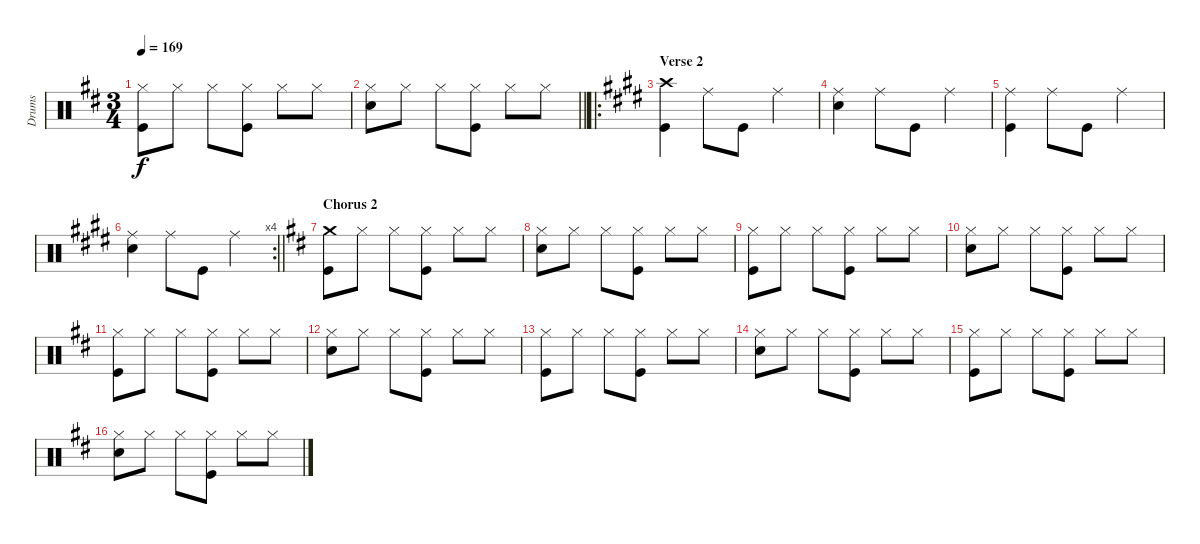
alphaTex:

\track ("Drums" "Drums") {instrument percussion}
\staff {score}
\articulation defaults
\ts (3 4)
\tempo 169
\clef neutral
\ks d
("Hi-Hat (closed)" "Kick (hit)").8{dy f} "Hi-Hat (closed)".8 "Hi-Hat (closed)".8 ("Hi-Hat (closed)" "Kick (hit)").8 "Hi-Hat (closed)".8 "Hi-Hat (closed)".8 |
\barLineRight lightlight
("Hi-Hat (closed)" "Snare (hit) 2").8 "Hi-Hat (closed)".8 "Hi-Hat (closed)".8 ("Hi-Hat (closed)" "Kick (hit)").8 "Hi-Hat (closed)".8 "Hi-Hat (closed)".8 |
\ro
\section ("" "Verse 2")
\ks e
("Crash high (hit)" "Kick (hit)").4 "Ride (middle)".8 "Kick (hit)".8 "Ride (middle)".4 |
("Ride (middle)" "Snare (hit) 2").4 "Ride (middle)".8 "Kick (hit)".8 "Ride (middle)".4 |
("Ride (middle)" "Kick (hit)").4 "Ride (middle)".8 "Kick (hit)".8 "Ride (middle)".4 |
\rc 4
\barLineRight lightlight
("Ride (middle)" "Snare (hit) 2").4 "Ride (middle)".8 "Kick (hit)".8 "Ride (middle)".4 |
\section ("" "Chorus 2")
\ks d
("Crash medium (hit)" "Kick (hit)").8 "Hi-Hat (closed)".8 "Hi-Hat (closed)".8 ("Hi-Hat (closed)" "Kick (hit)").8 "Hi-Hat (closed)".8 "Hi-Hat (closed)".8 |
("Hi-Hat (closed)" "Snare (hit) 2").8 "Hi-Hat (closed)".8 "Hi-Hat (closed)".8 ("Hi-Hat (closed)" "Kick (hit)").8 "Hi-Hat (closed)".8 "Hi-Hat (closed)".8 |
("Hi-Hat (closed)" "Kick (hit)").8 "Hi-Hat (closed)".8 "Hi-Hat (closed)".8 ("Hi-Hat (closed)" "Kick (hit)").8 "Hi-Hat (closed)".8 "Hi-Hat (closed)".8 |
("Hi-Hat (closed)" "Snare (hit) 2").8 "Hi-Hat (closed)".8 "Hi-Hat (closed)".8 ("Hi-Hat (closed)" "Kick (hit)").8 "Hi-Hat (closed)".8 "Hi-Hat (closed)".8 |
("Hi-Hat (closed)" "Kick (hit)").8 "Hi-Hat (closed)".8 "Hi-Hat (closed)".8 ("Hi-Hat (closed)" "Kick (hit)").8 "Hi-Hat (closed)".8 "Hi-Hat (closed)".8 |
("Hi-Hat (closed)" "Snare (hit) 2").8 "Hi-Hat (closed)".8 "Hi-Hat (closed)".8 ("Hi-Hat (closed)" "Kick (hit)").8 "Hi-Hat (closed)".8 "Hi-Hat (closed)".8 |
("Hi-Hat (closed)" "Kick (hit)").8 "Hi-Hat (closed)".8 "Hi-Hat (closed)".8 ("Hi-Hat (closed)" "Kick (hit)").8 "Hi-Hat (closed)".8 "Hi-Hat (closed)".8 |
("Hi-Hat (closed)" "Snare (hit) 2").8 "Hi-Hat (closed)".8 "Hi-Hat (closed)".8 ("Hi-Hat (closed)" "Kick (hit)").8 "Hi-Hat (closed)".8 "Hi-Hat (closed)".8 |
("Hi-Hat (closed)" "Kick (hit)").8 "Hi-Hat (closed)".8 "Hi-Hat (closed)".8 ("Hi-Hat (closed)" "Kick (hit)").8 "Hi-Hat (closed)".8 "Hi-Hat (closed)".8 |
("Hi-Hat (closed)" "Snare (hit) 2").8 "Hi-Hat (closed)".8 "Hi-Hat (closed)".8 ("Hi-Hat (closed)" "Kick (hit)").8 "Hi-Hat (closed)".8 "Hi-Hat (closed)".8
